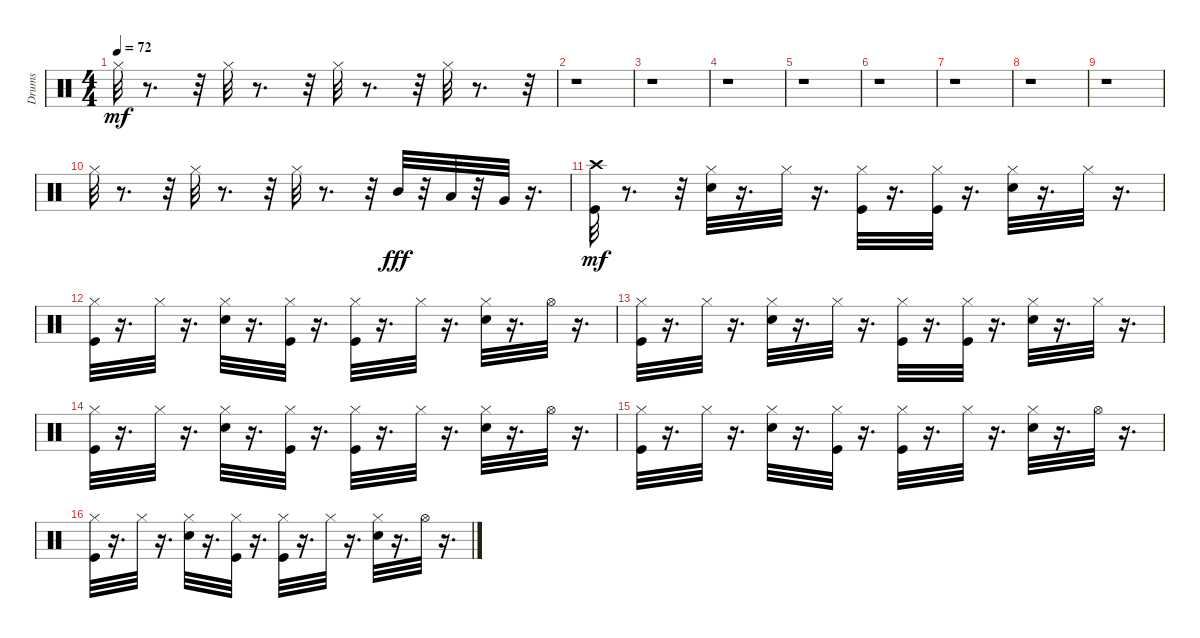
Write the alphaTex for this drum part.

\track ("Drums" "Drums") {instrument percussion}
\staff {score}
\articulation defaults
\ts (4 4)
\tempo 72
\clef neutral
\ks c "Hi-Hat (closed)".32{dy mf}
r.8{d} r.32 "Hi-Hat (closed)".32 r.8{d} r.32 "Hi-Hat (closed)".32 r.8{d} r.32 "Hi-Hat (closed)".32 r.8{d} r.32 |
r.1 |
r.1 |
r.1 |
r.1 |
r.1 |
r.1 |
r.1 |
r.1 |
"Hi-Hat (closed)".32 r.8{d} r.32 "Hi-Hat (closed)".32 r.8{d} r.32 "Hi-Hat (closed)".32 r.8{d} r.32 "Mid Tom (hit)".32{dy fff} r.32 "Low Tom (hit)".32 r.32 "Very Low Tom (hit)".32 r.16{d} |
("Crash high (hit)" "Kick (hit)").32{dy mf} r.8{d} r.32 ("Hi-Hat (closed)" "Snare (hit) 2").32 r.16{d} "Hi-Hat (closed)".32 r.16{d} ("Hi-Hat (closed)" "Kick (hit)").32 r.16{d} ("Hi-Hat (closed)" "Kick (hit)").32 r.16{d} ("Hi-Hat (closed)" "Snare (hit) 2").32 r.16{d} "Hi-Hat (closed)".32 r.16{d} |
("Hi-Hat (closed)" "Kick (hit)").32 r.16{d} "Hi-Hat (closed)".32 r.16{d} ("Snare (hit) 2" "Hi-Hat (closed)").32 r.16{d} ("Hi-Hat (closed)" "Kick (hit)").32 r.16{d} ("Hi-Hat (closed)" "Kick (hit)").32 r.16{d} "Hi-Hat (closed)".32 r.16{d} ("Hi-Hat (closed)" "Snare (hit) 2").32 r.16{d} "Hi-Hat (open)".32 r.16{d} |
("Hi-Hat (closed)" "Kick (hit)").32 r.16{d} "Hi-Hat (closed)".32 r.16{d} ("Hi-Hat (closed)" "Snare (hit) 2").32 r.16{d} "Hi-Hat (closed)".32 r.16{d} ("Hi-Hat (closed)" "Kick (hit)").32 r.16{d} ("Hi-Hat (closed)" "Kick (hit)").32 r.16{d} ("Hi-Hat (closed)" "Snare (hit) 2").32 r.16{d} "Hi-Hat (closed)".32 r.16{d} |
("Hi-Hat (closed)" "Kick (hit)").32 r.16{d} "Hi-Hat (closed)".32 r.16{d} ("Snare (hit) 2" "Hi-Hat (closed)").32 r.16{d} ("Hi-Hat (closed)" "Kick (hit)").32 r.16{d} ("Hi-Hat (closed)" "Kick (hit)").32 r.16{d} "Hi-Hat (closed)".32 r.16{d} ("Hi-Hat (closed)" "Snare (hit) 2").32 r.16{d} "Hi-Hat (open)".32 r.16{d} |
("Hi-Hat (closed)" "Kick (hit)").32 r.16{d} "Hi-Hat (closed)".32 r.16{d} ("Snare (hit) 2" "Hi-Hat (closed)").32 r.16{d} ("Hi-Hat (closed)" "Kick (hit)").32 r.16{d} ("Hi-Hat (closed)" "Kick (hit)").32 r.16{d} "Hi-Hat (closed)".32 r.16{d} ("Hi-Hat (closed)" "Snare (hit) 2").32 r.16{d} "Hi-Hat (open)".32 r.16{d} |
("Hi-Hat (closed)" "Kick (hit)").32 r.16{d} "Hi-Hat (closed)".32 r.16{d} ("Snare (hit) 2" "Hi-Hat (closed)").32 r.16{d} ("Hi-Hat (closed)" "Kick (hit)").32 r.16{d} ("Hi-Hat (closed)" "Kick (hit)").32 r.16{d} "Hi-Hat (closed)".32 r.16{d} ("Hi-Hat (closed)" "Snare (hit) 2").32 r.16{d} "Hi-Hat (open)".32 r.16{d}
